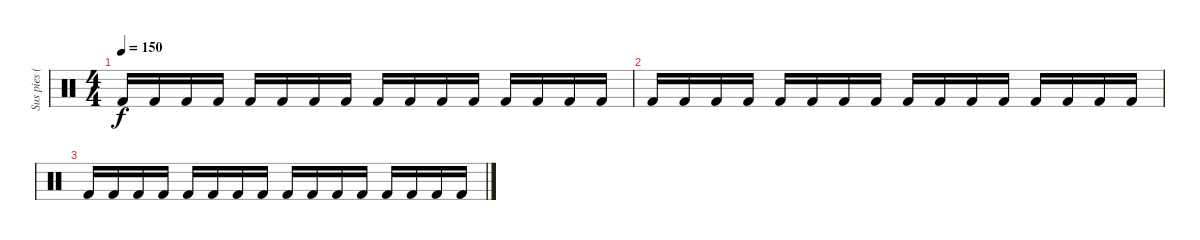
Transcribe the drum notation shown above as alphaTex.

\track ("Sus pies (a veces)" "Sus pies (") {instrument percussion}
\staff {score}
\articulation defaults
\ts (4 4)
\tempo 150
\clef neutral
\ks c "Kick (hit) 2".16{dy f} "Kick (hit) 2".16 "Kick (hit) 2".16 "Kick (hit) 2".16 "Kick (hit) 2".16 "Kick (hit) 2".16 "Kick (hit) 2".16 "Kick (hit) 2".16 "Kick (hit) 2".16 "Kick (hit) 2".16 "Kick (hit) 2".16 "Kick (hit) 2".16 "Kick (hit) 2".16 "Kick (hit) 2".16 "Kick (hit) 2".16 "Kick (hit) 2".16
|
"Kick (hit) 2".16 "Kick (hit) 2".16 "Kick (hit) 2".16 "Kick (hit) 2".16 "Kick (hit) 2".16 "Kick (hit) 2".16 "Kick (hit) 2".16 "Kick (hit) 2".16 "Kick (hit) 2".16 "Kick (hit) 2".16 "Kick (hit) 2".16 "Kick (hit) 2".16 "Kick (hit) 2".16 "Kick (hit) 2".16 "Kick (hit) 2".16 "Kick (hit) 2".16 |
"Kick (hit) 2".16 "Kick (hit) 2".16 "Kick (hit) 2".16 "Kick (hit) 2".16 "Kick (hit) 2".16 "Kick (hit) 2".16 "Kick (hit) 2".16 "Kick (hit) 2".16 "Kick (hit) 2".16 "Kick (hit) 2".16 "Kick (hit) 2".16 "Kick (hit) 2".16 "Kick (hit) 2".16 "Kick (hit) 2".16 "Kick (hit) 2".16 "Kick (hit) 2".16
